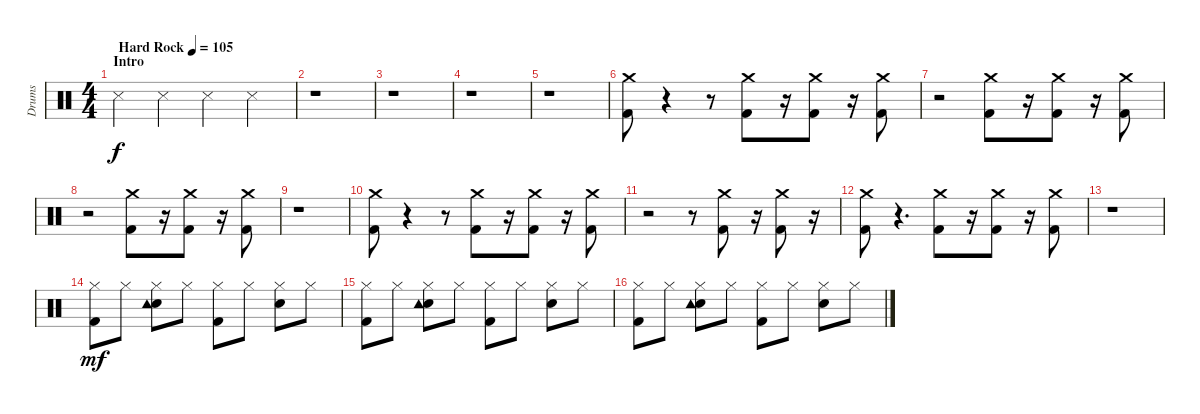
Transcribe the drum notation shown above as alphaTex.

\track ("Drums" "Drums") {instrument percussion}
\staff {score}
\articulation defaults
\ts (4 4)
\section ("" "Intro")
\tempo (105 "Hard Rock")
\clef neutral
\ks c "Metronome (hit)".4{dy f} "Metronome (hit)".4 "Metronome (hit)".4 "Metronome (hit)".4
|
r.1 |
r.1 |
r.1 |
r.1 |
("Crash medium (hit)" "Kick (hit) 2").8 r.4 r.8 ("Crash medium (hit)" "Kick (hit) 2").8 r.16 ("Crash medium (hit)" "Kick (hit) 2").8 r.16 ("Crash medium (hit)" "Kick (hit) 2").8 |
r.2 ("Crash medium (hit)" "Kick (hit) 2").8 r.16 ("Crash medium (hit)" "Kick (hit) 2").8 r.16 ("Crash medium (hit)" "Kick (hit) 2").8 |
r.2 ("Crash medium (hit)" "Kick (hit) 2").8 r.16 ("Crash medium (hit)" "Kick (hit) 2").8 r.16 ("Crash medium (hit)" "Kick (hit) 2").8 |
r.1 |
("Crash medium (hit)" "Kick (hit) 2").8 r.4 r.8 ("Crash medium (hit)" "Kick (hit) 2").8 r.16 ("Crash medium (hit)" "Kick (hit) 2").8 r.16 ("Crash medium (hit)" "Kick (hit) 2").8 |
r.2 r.8 ("Crash medium (hit)" "Kick (hit) 2").8 r.16 ("Crash medium (hit)" "Kick (hit) 2").8 r.16 |
("Crash medium (hit)" "Kick (hit) 2").8 r.4{d} ("Crash medium (hit)" "Kick (hit) 2").8 r.16 ("Crash medium (hit)" "Kick (hit) 2").8 r.16 ("Crash medium (hit)" "Kick (hit) 2").8 |
r.1 |
("Hi-Hat (closed)" "Kick (hit) 2").8{dy mf} "Hi-Hat (closed)".8 ("Hi-Hat (closed)" "Snare (hit) 2" "Tambourine (hit)").8 "Hi-Hat (closed)".8 ("Hi-Hat (closed)" "Kick (hit) 2").8 "Hi-Hat (closed)".8 ("Hi-Hat (closed)" "Snare (hit) 2").8 "Hi-Hat (closed)".8 |
("Hi-Hat (closed)" "Kick (hit) 2").8 "Hi-Hat (closed)".8 ("Hi-Hat (closed)" "Snare (hit) 2" "Tambourine (hit)").8 "Hi-Hat (closed)".8 ("Hi-Hat (closed)" "Kick (hit) 2").8 "Hi-Hat (closed)".8 ("Hi-Hat (closed)" "Snare (hit) 2").8 "Hi-Hat (closed)".8 |
("Hi-Hat (closed)" "Kick (hit) 2").8 "Hi-Hat (closed)".8 ("Hi-Hat (closed)" "Snare (hit) 2" "Tambourine (hit)").8 "Hi-Hat (closed)".8 ("Hi-Hat (closed)" "Kick (hit) 2").8 "Hi-Hat (closed)".8 ("Hi-Hat (closed)" "Snare (hit) 2").8 "Hi-Hat (closed)".8
